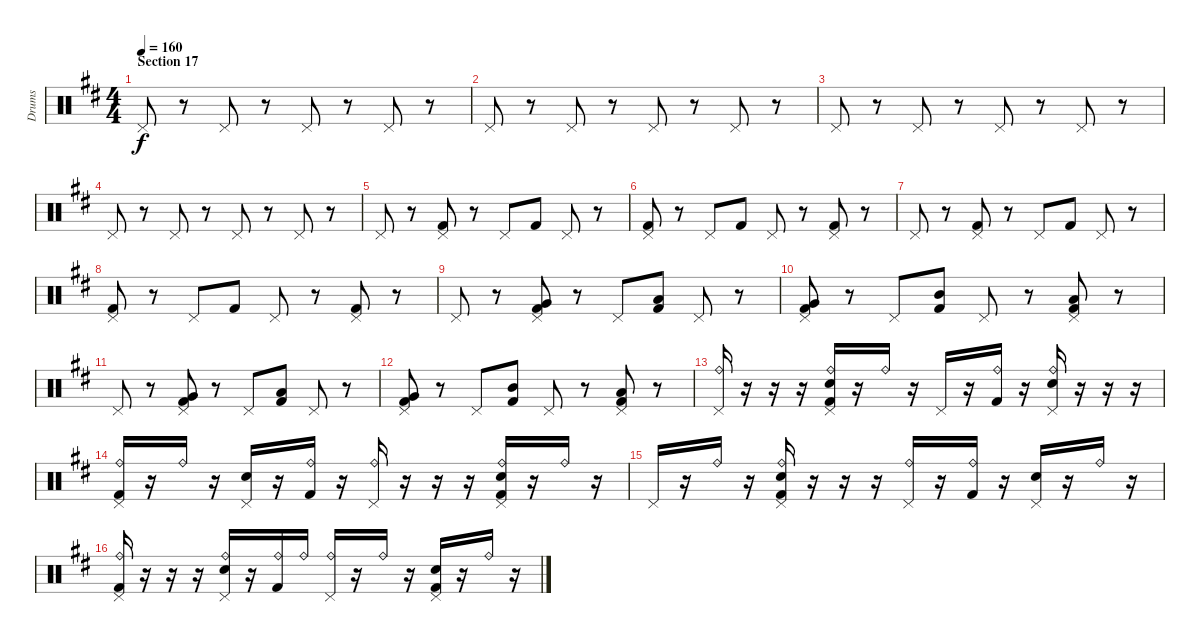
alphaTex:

\track ("Drums" "Drums") {instrument percussion}
\staff {score}
\articulation defaults
\ts (4 4)
\section ("" "Section 17")
\tempo 160
\clef neutral
\ks bminor "Pedal Hi-Hat (hit)".8{dy f}
r.8 "Pedal Hi-Hat (hit)".8 r.8 "Pedal Hi-Hat (hit)".8 r.8 "Pedal Hi-Hat (hit)".8 r.8 |
"Pedal Hi-Hat (hit)".8 r.8 "Pedal Hi-Hat (hit)".8 r.8 "Pedal Hi-Hat (hit)".8 r.8 "Pedal Hi-Hat (hit)".8 r.8 |
"Pedal Hi-Hat (hit)".8 r.8 "Pedal Hi-Hat (hit)".8 r.8 "Pedal Hi-Hat (hit)".8 r.8 "Pedal Hi-Hat (hit)".8 r.8 |
"Pedal Hi-Hat (hit)".8 r.8 "Pedal Hi-Hat (hit)".8 r.8 "Pedal Hi-Hat (hit)".8 r.8 "Pedal Hi-Hat (hit)".8 r.8 |
"Pedal Hi-Hat (hit)".8 r.8 ("Pedal Hi-Hat (hit)" "Kick (hit) 2").8 r.8 "Pedal Hi-Hat (hit)".8 "Kick (hit) 2".8 "Pedal Hi-Hat (hit)".8 r.8 |
("Pedal Hi-Hat (hit)" "Kick (hit) 2").8 r.8 "Pedal Hi-Hat (hit)".8 "Kick (hit) 2".8 "Pedal Hi-Hat (hit)".8 r.8 ("Pedal Hi-Hat (hit)" "Kick (hit) 2").8 r.8 |
"Pedal Hi-Hat (hit)".8 r.8 ("Pedal Hi-Hat (hit)" "Kick (hit) 2").8 r.8 "Pedal Hi-Hat (hit)".8 "Kick (hit) 2".8 "Pedal Hi-Hat (hit)".8 r.8 |
("Pedal Hi-Hat (hit)" "Kick (hit) 2").8 r.8 "Pedal Hi-Hat (hit)".8 "Kick (hit) 2".8 "Pedal Hi-Hat (hit)".8 r.8 ("Pedal Hi-Hat (hit)" "Kick (hit) 2").8 r.8 |
"Pedal Hi-Hat (hit)".8 r.8 ("Pedal Hi-Hat (hit)" "Very Low Tom (hit)" "Kick (hit) 2").8 r.8 "Pedal Hi-Hat (hit)".8 ("Low Tom (hit)" "Kick (hit) 2").8 "Pedal Hi-Hat (hit)".8 r.8 |
("Pedal Hi-Hat (hit)" "Very Low Tom (hit)" "Kick (hit) 2").8 r.8 "Pedal Hi-Hat (hit)".8 ("Mid Tom (hit)" "Kick (hit) 2").8 "Pedal Hi-Hat (hit)".8 r.8 ("Pedal Hi-Hat (hit)" "Low Floor Tom (hit)" "Kick (hit) 2").8 r.8 |
"Pedal Hi-Hat (hit)".8 r.8 ("Pedal Hi-Hat (hit)" "Very Low Tom (hit)" "Kick (hit) 2").8 r.8 "Pedal Hi-Hat (hit)".8 ("Low Tom (hit)" "Kick (hit) 2").8 "Pedal Hi-Hat (hit)".8 r.8 |
("Pedal Hi-Hat (hit)" "Very Low Tom (hit)" "Kick (hit) 2").8 r.8 "Pedal Hi-Hat (hit)".8 ("Mid Tom (hit)" "Kick (hit) 2").8 "Pedal Hi-Hat (hit)".8 r.8 ("Pedal Hi-Hat (hit)" "Low Floor Tom (hit)" "Kick (hit) 2").8 r.8 |
("Ride (bell)" "Pedal Hi-Hat (hit)").16 r.16 r.16 r.16 ("Ride (bell)" "Pedal Hi-Hat (hit)" "Snare (hit) 2" "Kick (hit) 2").16 r.16 "Ride (bell)".16 r.16 "Pedal Hi-Hat (hit)".16 r.16 ("Ride (bell)" "Kick (hit) 2").16 r.16 ("Ride (bell)" "Pedal Hi-Hat (hit)" "Snare (hit) 2").16 r.16 r.16 r.16 |
("Ride (bell)" "Pedal Hi-Hat (hit)" "Kick (hit) 2").16 r.16 "Ride (bell)".16 r.16 ("Pedal Hi-Hat (hit)" "Snare (hit) 2").16 r.16 ("Ride (bell)" "Kick (hit) 2").16 r.16 ("Ride (bell)" "Pedal Hi-Hat (hit)").16 r.16 r.16 r.16 ("Ride (bell)" "Pedal Hi-Hat (hit)" "Snare (hit) 2" "Kick (hit) 2").16 r.16 "Ride (bell)".16 r.16 |
"Pedal Hi-Hat (hit)".16 r.16 "Ride (bell)".16 r.16 ("Ride (bell)" "Pedal Hi-Hat (hit)" "Snare (hit) 2" "Kick (hit) 2").16 r.16 r.16 r.16 ("Ride (bell)" "Pedal Hi-Hat (hit)").16 r.16 ("Ride (bell)" "Kick (hit) 2").16 r.16 ("Pedal Hi-Hat (hit)" "Snare (hit) 2").16 r.16 "Ride (bell)".16 r.16 |
("Ride (bell)" "Pedal Hi-Hat (hit)" "Kick (hit) 2").16 r.16 r.16 r.16 ("Ride (bell)" "Pedal Hi-Hat (hit)" "Snare (hit) 2").16 r.16 ("Ride (bell)" "Kick (hit) 2").16 "Ride (bell)".16 ("Ride (bell)" "Pedal Hi-Hat (hit)").16 r.16 "Ride (bell)".16 r.16 ("Pedal Hi-Hat (hit)" "Snare (hit) 2" "Kick (hit) 2").16 r.16 "Ride (bell)".16 r.16
